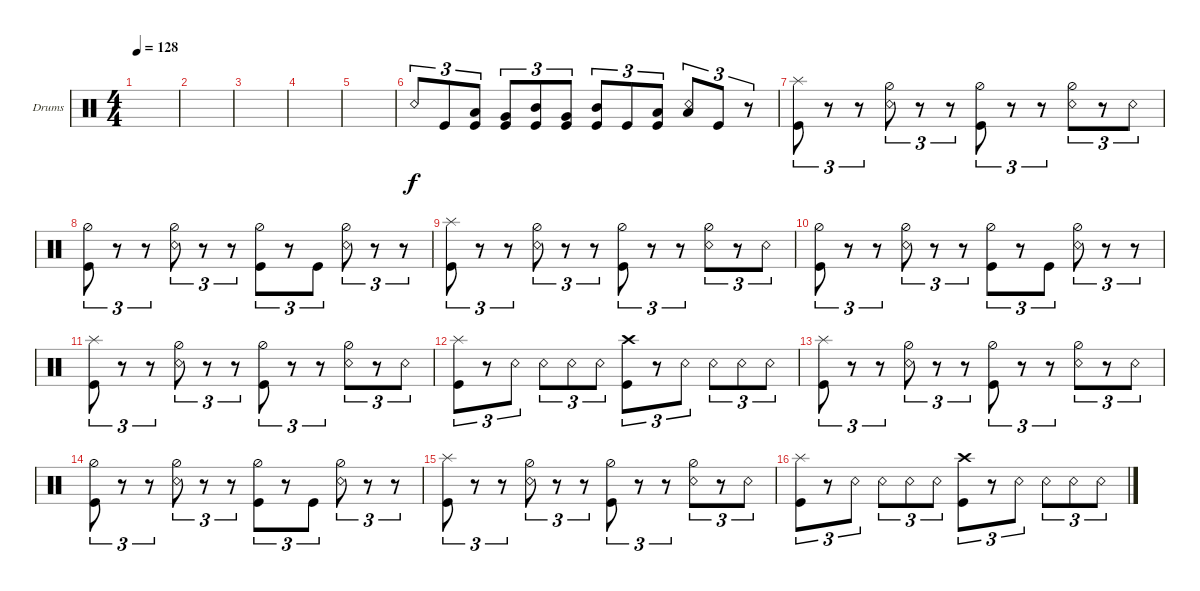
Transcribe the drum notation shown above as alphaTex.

\defaultSystemsLayout 4
\bracketExtendMode groupsimilarinstruments
\firstSystemTrackNameOrientation horizontal
\otherSystemsTrackNameOrientation horizontal
\track ("Drumkit" "Drums") {instrument percussion}
\staff {score}
\articulation defaults
\ts (4 4)
\tempo 128
\clef neutral
\ks c
|
|
|
|
|
"Snare (rim shot)".8{tu (3 2)} "Kick (hit)".8{tu (3 2)} ("Low Tom (hit)" "Kick (hit)").8{tu (3 2)} ("Very Low Tom (hit)" "Kick (hit)").8{tu (3 2)} ("Mid Tom (hit)" "Kick (hit)").8{tu (3 2)} ("Very Low Tom (hit)" "Kick (hit)").8{tu (3 2)} ("Mid Tom (hit)" "Kick (hit)").8{tu (3 2)} "Kick (hit)".8{tu (3 2)} ("Low Tom (hit)" "Kick (hit)").8{tu (3 2)} ("Low Tom (hit)" "Snare (rim shot)").8{tu (3 2)} "Kick (hit)".8{tu (3 2)} r.8{tu (3 2)} |
("Kick (hit)" "Splash (hit)").8{tu (3 2)} r.8{tu (3 2)} r.8{tu (3 2)} ("Snare (rim shot)" "Hi-Hat (half)").8{tu (3 2)} r.8{tu (3 2)} r.8{tu (3 2)} ("Kick (hit)" "Hi-Hat (half)").8{tu (3 2)} r.8{tu (3 2)} r.8{tu (3 2)} ("Snare (rim shot)" "Hi-Hat (half)").8{tu (3 2)} r.8{tu (3 2)} "Snare (rim shot)".8{tu (3 2)} |
("Kick (hit)" "Hi-Hat (half)").8{tu (3 2)} r.8{tu (3 2)} r.8{tu (3 2)} ("Snare (rim shot)" "Hi-Hat (half)").8{tu (3 2)} r.8{tu (3 2)} r.8{tu (3 2)} ("Kick (hit)" "Hi-Hat (half)").8{tu (3 2)} r.8{tu (3 2)} "Kick (hit)".8{tu (3 2)} ("Snare (rim shot)" "Hi-Hat (half)").8{tu (3 2)} r.8{tu (3 2)} r.8{tu (3 2)} |
("Kick (hit)" "Splash (hit)").8{tu (3 2)} r.8{tu (3 2)} r.8{tu (3 2)} ("Snare (rim shot)" "Hi-Hat (half)").8{tu (3 2)} r.8{tu (3 2)} r.8{tu (3 2)} ("Kick (hit)" "Hi-Hat (half)").8{tu (3 2)} r.8{tu (3 2)} r.8{tu (3 2)} ("Snare (rim shot)" "Hi-Hat (half)").8{tu (3 2)} r.8{tu (3 2)} "Snare (rim shot)".8{tu (3 2)} |
("Kick (hit)" "Hi-Hat (half)").8{tu (3 2)} r.8{tu (3 2)} r.8{tu (3 2)} ("Snare (rim shot)" "Hi-Hat (half)").8{tu (3 2)} r.8{tu (3 2)} r.8{tu (3 2)} ("Kick (hit)" "Hi-Hat (half)").8{tu (3 2)} r.8{tu (3 2)} "Kick (hit)".8{tu (3 2)} ("Snare (rim shot)" "Hi-Hat (half)").8{tu (3 2)} r.8{tu (3 2)} r.8{tu (3 2)} |
("Kick (hit)" "Splash (hit)").8{tu (3 2)} r.8{tu (3 2)} r.8{tu (3 2)} ("Snare (rim shot)" "Hi-Hat (half)").8{tu (3 2)} r.8{tu (3 2)} r.8{tu (3 2)} ("Kick (hit)" "Hi-Hat (half)").8{tu (3 2)} r.8{tu (3 2)} r.8{tu (3 2)} ("Snare (rim shot)" "Hi-Hat (half)").8{tu (3 2)} r.8{tu (3 2)} "Snare (rim shot)".8{tu (3 2)} |
("Kick (hit)" "Splash (hit)").8{tu (3 2)} r.8{tu (3 2)} "Snare (rim shot)".8{tu (3 2)} "Snare (rim shot)".8{tu (3 2)} "Snare (rim shot)".8{tu (3 2)} "Snare (rim shot)".8{tu (3 2)} ("Kick (hit)" "Crash high (hit)").8{tu (3 2)} r.8{tu (3 2)} "Snare (rim shot)".8{tu (3 2)} "Snare (rim shot)".8{tu (3 2)} "Snare (rim shot)".8{tu (3 2)} "Snare (rim shot)".8{tu (3 2)} |
("Kick (hit)" "Splash (hit)").8{tu (3 2)} r.8{tu (3 2)} r.8{tu (3 2)} ("Snare (rim shot)" "Hi-Hat (half)").8{tu (3 2)} r.8{tu (3 2)} r.8{tu (3 2)} ("Kick (hit)" "Hi-Hat (half)").8{tu (3 2)} r.8{tu (3 2)} r.8{tu (3 2)} ("Snare (rim shot)" "Hi-Hat (half)").8{tu (3 2)} r.8{tu (3 2)} "Snare (rim shot)".8{tu (3 2)} |
("Kick (hit)" "Hi-Hat (half)").8{tu (3 2)} r.8{tu (3 2)} r.8{tu (3 2)} ("Snare (rim shot)" "Hi-Hat (half)").8{tu (3 2)} r.8{tu (3 2)} r.8{tu (3 2)} ("Kick (hit)" "Hi-Hat (half)").8{tu (3 2)} r.8{tu (3 2)} "Kick (hit)".8{tu (3 2)} ("Snare (rim shot)" "Hi-Hat (half)").8{tu (3 2)} r.8{tu (3 2)} r.8{tu (3 2)} |
("Kick (hit)" "Splash (hit)").8{tu (3 2)} r.8{tu (3 2)} r.8{tu (3 2)} ("Snare (rim shot)" "Hi-Hat (half)").8{tu (3 2)} r.8{tu (3 2)} r.8{tu (3 2)} ("Kick (hit)" "Hi-Hat (half)").8{tu (3 2)} r.8{tu (3 2)} r.8{tu (3 2)} ("Snare (rim shot)" "Hi-Hat (half)").8{tu (3 2)} r.8{tu (3 2)} "Snare (rim shot)".8{tu (3 2)} |
("Kick (hit)" "Splash (hit)").8{tu (3 2)} r.8{tu (3 2)} "Snare (rim shot)".8{tu (3 2)} "Snare (rim shot)".8{tu (3 2)} "Snare (rim shot)".8{tu (3 2)} "Snare (rim shot)".8{tu (3 2)} ("Kick (hit)" "Crash high (hit)").8{tu (3 2)} r.8{tu (3 2)} "Snare (rim shot)".8{tu (3 2)} "Snare (rim shot)".8{tu (3 2)} "Snare (rim shot)".8{tu (3 2)} "Snare (rim shot)".8{tu (3 2)}
